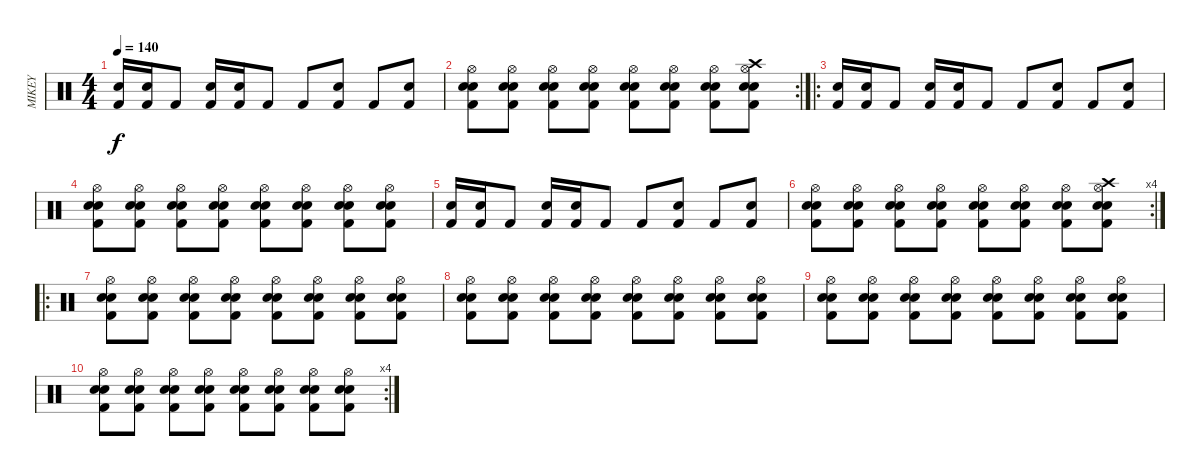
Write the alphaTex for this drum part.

\track ("MIKEY" "MIKEY") {instrument percussion}
\staff {score}
\articulation defaults
\ts (4 4)
\tempo 140
\clef neutral
\ks c
("Snare (hit) 2" "Kick (hit) 2").16{dy f} ("Snare (hit) 2" "Kick (hit) 2").16 "Kick (hit) 2".8 ("Snare (hit) 2" "Kick (hit) 2").16 ("Snare (hit) 2" "Kick (hit) 2").16 "Kick (hit) 2".8 "Kick (hit) 2".8 ("Snare (hit) 2" "Kick (hit) 2").8 "Kick (hit) 2".8 ("Snare (hit) 2" "Kick (hit) 2").8 |
\rc 2
("Electric Snare (hit)" "Kick (hit) 2" "Hi-Hat (open)" "Electric Snare (hit)").8 ("Electric Snare (hit)" "Kick (hit) 2" "Hi-Hat (open)" "Electric Snare (hit)").8 ("Electric Snare (hit)" "Kick (hit) 2" "Hi-Hat (open)" "Electric Snare (hit)").8 ("Electric Snare (hit)" "Kick (hit) 2" "Hi-Hat (open)" "Electric Snare (hit)").8 ("Electric Snare (hit)" "Kick (hit) 2" "Hi-Hat (open)" "Electric Snare (hit)").8 ("Electric Snare (hit)" "Kick (hit) 2" "Hi-Hat (open)" "Electric Snare (hit)").8 ("Electric Snare (hit)" "Kick (hit) 2" "Hi-Hat (open)" "Electric Snare (hit)").8 ("Crash high (hit)" "Electric Snare (hit)" "Kick (hit) 2" "Hi-Hat (open)" "Electric Snare (hit)").8 |
\ro
("Snare (hit) 2" "Kick (hit) 2").16 ("Snare (hit) 2" "Kick (hit) 2").16 "Kick (hit) 2".8 ("Snare (hit) 2" "Kick (hit) 2").16 ("Snare (hit) 2" "Kick (hit) 2").16 "Kick (hit) 2".8 "Kick (hit) 2".8 ("Snare (hit) 2" "Kick (hit) 2").8 "Kick (hit) 2".8 ("Snare (hit) 2" "Kick (hit) 2").8 |
("Electric Snare (hit)" "Kick (hit) 2" "Hi-Hat (open)" "Electric Snare (hit)").8 ("Electric Snare (hit)" "Kick (hit) 2" "Hi-Hat (open)" "Electric Snare (hit)").8 ("Electric Snare (hit)" "Kick (hit) 2" "Hi-Hat (open)" "Electric Snare (hit)").8 ("Electric Snare (hit)" "Kick (hit) 2" "Hi-Hat (open)" "Electric Snare (hit)").8 ("Electric Snare (hit)" "Kick (hit) 2" "Hi-Hat (open)" "Electric Snare (hit)").8 ("Electric Snare (hit)" "Kick (hit) 2" "Hi-Hat (open)" "Electric Snare (hit)").8 ("Electric Snare (hit)" "Kick (hit) 2" "Hi-Hat (open)" "Electric Snare (hit)").8 ("Electric Snare (hit)" "Kick (hit) 2" "Hi-Hat (open)" "Electric Snare (hit)").8 |
("Snare (hit) 2" "Kick (hit) 2").16 ("Snare (hit) 2" "Kick (hit) 2").16 "Kick (hit) 2".8 ("Snare (hit) 2" "Kick (hit) 2").16 ("Snare (hit) 2" "Kick (hit) 2").16 "Kick (hit) 2".8 "Kick (hit) 2".8 ("Snare (hit) 2" "Kick (hit) 2").8 "Kick (hit) 2".8 ("Snare (hit) 2" "Kick (hit) 2").8 |
\rc 4
("Electric Snare (hit)" "Kick (hit) 2" "Hi-Hat (open)" "Electric Snare (hit)").8 ("Electric Snare (hit)" "Kick (hit) 2" "Hi-Hat (open)" "Electric Snare (hit)").8 ("Electric Snare (hit)" "Kick (hit) 2" "Hi-Hat (open)" "Electric Snare (hit)").8 ("Electric Snare (hit)" "Kick (hit) 2" "Hi-Hat (open)" "Electric Snare (hit)").8 ("Electric Snare (hit)" "Kick (hit) 2" "Hi-Hat (open)" "Electric Snare (hit)").8 ("Electric Snare (hit)" "Kick (hit) 2" "Hi-Hat (open)" "Electric Snare (hit)").8 ("Electric Snare (hit)" "Kick (hit) 2" "Hi-Hat (open)" "Electric Snare (hit)").8 ("Crash high (hit)" "Electric Snare (hit)" "Kick (hit) 2" "Hi-Hat (open)" "Electric Snare (hit)").8 |
\ro
("Electric Snare (hit)" "Kick (hit) 2" "Hi-Hat (open)" "Electric Snare (hit)").8 ("Electric Snare (hit)" "Kick (hit) 2" "Hi-Hat (open)" "Electric Snare (hit)").8 ("Electric Snare (hit)" "Kick (hit) 2" "Hi-Hat (open)" "Electric Snare (hit)").8 ("Electric Snare (hit)" "Kick (hit) 2" "Hi-Hat (open)" "Electric Snare (hit)").8 ("Electric Snare (hit)" "Kick (hit) 2" "Hi-Hat (open)" "Electric Snare (hit)").8 ("Electric Snare (hit)" "Kick (hit) 2" "Hi-Hat (open)" "Electric Snare (hit)").8 ("Electric Snare (hit)" "Kick (hit) 2" "Hi-Hat (open)" "Electric Snare (hit)").8 ("Electric Snare (hit)" "Kick (hit) 2" "Hi-Hat (open)" "Electric Snare (hit)").8 |
("Electric Snare (hit)" "Kick (hit) 2" "Hi-Hat (open)" "Electric Snare (hit)").8 ("Electric Snare (hit)" "Kick (hit) 2" "Hi-Hat (open)" "Electric Snare (hit)").8 ("Electric Snare (hit)" "Kick (hit) 2" "Hi-Hat (open)" "Electric Snare (hit)").8 ("Electric Snare (hit)" "Kick (hit) 2" "Hi-Hat (open)" "Electric Snare (hit)").8 ("Electric Snare (hit)" "Kick (hit) 2" "Hi-Hat (open)" "Electric Snare (hit)").8 ("Electric Snare (hit)" "Kick (hit) 2" "Hi-Hat (open)" "Electric Snare (hit)").8 ("Electric Snare (hit)" "Kick (hit) 2" "Hi-Hat (open)" "Electric Snare (hit)").8 ("Electric Snare (hit)" "Kick (hit) 2" "Hi-Hat (open)" "Electric Snare (hit)").8 |
("Electric Snare (hit)" "Kick (hit) 2" "Hi-Hat (open)" "Electric Snare (hit)").8 ("Electric Snare (hit)" "Kick (hit) 2" "Hi-Hat (open)" "Electric Snare (hit)").8 ("Electric Snare (hit)" "Kick (hit) 2" "Hi-Hat (open)" "Electric Snare (hit)").8 ("Electric Snare (hit)" "Kick (hit) 2" "Hi-Hat (open)" "Electric Snare (hit)").8 ("Electric Snare (hit)" "Kick (hit) 2" "Hi-Hat (open)" "Electric Snare (hit)").8 ("Electric Snare (hit)" "Kick (hit) 2" "Hi-Hat (open)" "Electric Snare (hit)").8 ("Electric Snare (hit)" "Kick (hit) 2" "Hi-Hat (open)" "Electric Snare (hit)").8 ("Electric Snare (hit)" "Kick (hit) 2" "Hi-Hat (open)" "Electric Snare (hit)").8 |
\rc 4
("Electric Snare (hit)" "Kick (hit) 2" "Hi-Hat (open)" "Electric Snare (hit)").8 ("Electric Snare (hit)" "Kick (hit) 2" "Hi-Hat (open)" "Electric Snare (hit)").8 ("Electric Snare (hit)" "Kick (hit) 2" "Hi-Hat (open)" "Electric Snare (hit)").8 ("Electric Snare (hit)" "Kick (hit) 2" "Hi-Hat (open)" "Electric Snare (hit)").8 ("Electric Snare (hit)" "Kick (hit) 2" "Hi-Hat (open)" "Electric Snare (hit)").8 ("Electric Snare (hit)" "Kick (hit) 2" "Hi-Hat (open)" "Electric Snare (hit)").8 ("Electric Snare (hit)" "Kick (hit) 2" "Hi-Hat (open)" "Electric Snare (hit)").8 ("Electric Snare (hit)" "Kick (hit) 2" "Hi-Hat (open)" "Electric Snare (hit)").8
